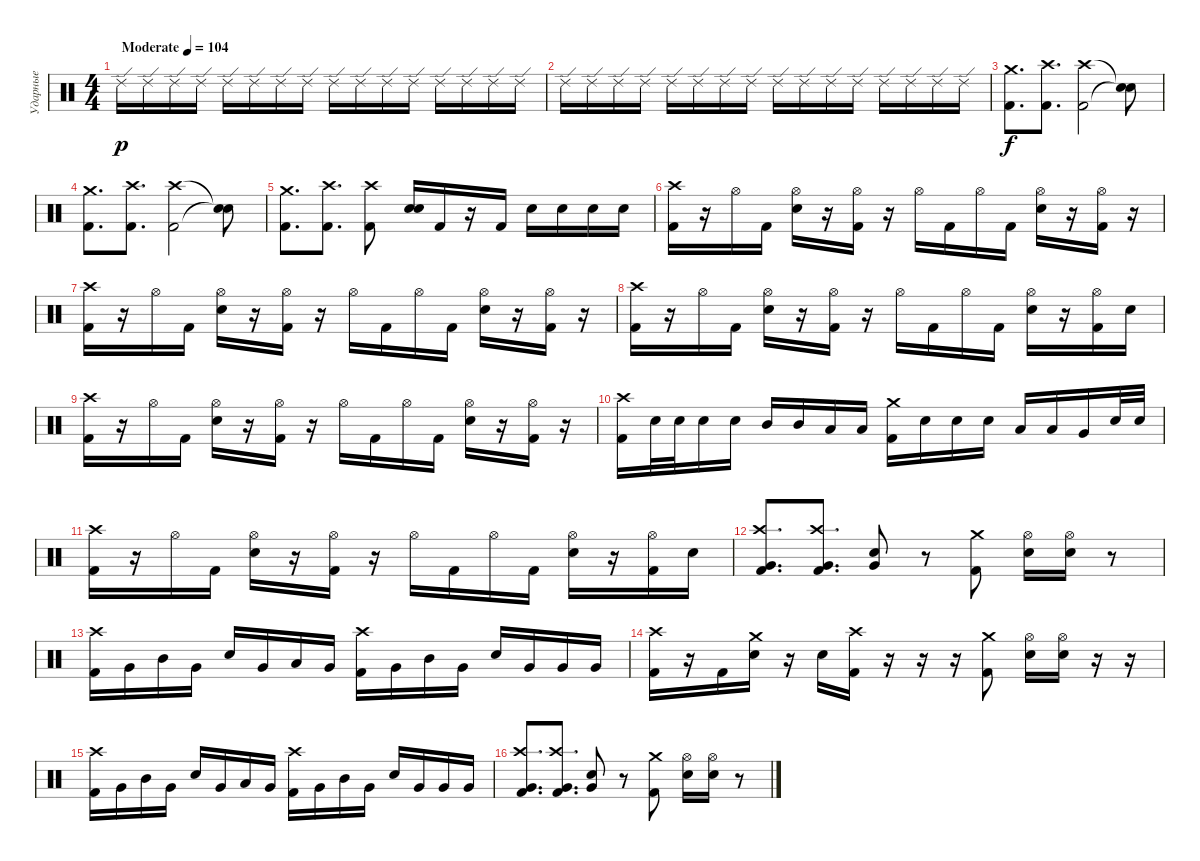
\track ("Ударные" "Ударные") {instrument percussion}
\staff {score}
\articulation defaults
\ts (4 4)
\tempo (104 "Moderate")
\clef neutral
\ks c "Ride (edge) 2".16{dy p} "Ride (edge) 2".16 "Ride (edge) 2".16 "Ride (edge) 2".16 "Ride (edge) 2".16 "Ride (edge) 2".16 "Ride (edge) 2".16 "Ride (edge) 2".16 "Ride (edge) 2".16 "Ride (edge) 2".16 "Ride (edge) 2".16 "Ride (edge) 2".16 "Ride (edge) 2".16 "Ride (edge) 2".16 "Ride (edge) 2".16 "Ride (edge) 2".16
|
"Ride (edge) 2".16 "Ride (edge) 2".16 "Ride (edge) 2".16 "Ride (edge) 2".16 "Ride (edge) 2".16 "Ride (edge) 2".16 "Ride (edge) 2".16 "Ride (edge) 2".16 "Ride (edge) 2".16 "Ride (edge) 2".16 "Ride (edge) 2".16 "Ride (edge) 2".16 "Ride (edge) 2".16 "Ride (edge) 2".16 "Ride (edge) 2".16 "Ride (edge) 2".16 |
("Crash medium (hit)" "Kick (hit) 2").8{d dy f} ("Crash high (hit)" "Kick (hit) 2").8{d} ("Crash high (hit)" "Kick (hit) 2").2 ("Snare (hit)"{t} "Snare (hit)"{t}).8 |
("Crash medium (hit)" "Kick (hit) 2").8{d} ("Crash high (hit)" "Kick (hit) 2").8{d} ("Crash high (hit)" "Kick (hit) 2").2 ("Snare (hit)"{t} "Snare (hit)"{t}).8 |
("Crash medium (hit)" "Kick (hit) 2").8{d} ("Crash high (hit)" "Kick (hit) 2").8{d} ("Crash high (hit)" "Kick (hit) 2").8 ("Snare (hit) 2" "Snare (hit) 2").16 "Kick (hit) 2".16 r.16 "Kick (hit) 2".16 "Snare (hit) 2".16 "Snare (hit) 2".16 "Snare (hit) 2".16 "Snare (hit) 2".16 |
("Crash high (hit)" "Kick (hit) 2").16 r.16 "Hi-Hat (open)".16 "Kick (hit) 2".16 ("Hi-Hat (open)" "Snare (hit) 2").16 r.16 ("Hi-Hat (open)" "Kick (hit) 2").16 r.16 "Hi-Hat (open)".16 "Kick (hit) 2".16 "Hi-Hat (open)".16 "Kick (hit) 2".16 ("Hi-Hat (open)" "Snare (hit) 2").16 r.16 ("Hi-Hat (open)" "Kick (hit) 2").16 r.16 |
("Crash high (hit)" "Kick (hit) 2").16 r.16 "Hi-Hat (open)".16 "Kick (hit) 2".16 ("Hi-Hat (open)" "Snare (hit) 2").16 r.16 ("Hi-Hat (open)" "Kick (hit) 2").16 r.16 "Hi-Hat (open)".16 "Kick (hit) 2".16 "Hi-Hat (open)".16 "Kick (hit) 2".16 ("Hi-Hat (open)" "Snare (hit) 2").16 r.16 ("Hi-Hat (open)" "Kick (hit) 2").16 r.16 |
("Crash high (hit)" "Kick (hit) 2").16 r.16 "Hi-Hat (open)".16 "Kick (hit) 2".16 ("Hi-Hat (open)" "Snare (hit) 2").16 r.16 ("Hi-Hat (open)" "Kick (hit) 2").16 r.16 "Hi-Hat (open)".16 "Kick (hit) 2".16 "Hi-Hat (open)".16 "Kick (hit) 2".16 ("Hi-Hat (open)" "Snare (hit) 2").16 r.16 ("Hi-Hat (open)" "Kick (hit) 2").16 "Snare (hit) 2".16 |
("Crash high (hit)" "Kick (hit) 2").16 r.16 "Hi-Hat (open)".16 "Kick (hit) 2".16 ("Hi-Hat (open)" "Snare (hit) 2").16 r.16 ("Hi-Hat (open)" "Kick (hit) 2").16 r.16 "Hi-Hat (open)".16 "Kick (hit) 2".16 "Hi-Hat (open)".16 "Kick (hit) 2".16 ("Hi-Hat (open)" "Snare (hit) 2").16 r.16 ("Hi-Hat (open)" "Kick (hit) 2").16 r.16 |
("Crash high (hit)" "Kick (hit) 2").16 "Snare (hit) 2".32 "Snare (hit) 2".32 "Snare (hit) 2".16 "Snare (hit) 2".16 "Mid Tom (hit)".16 "Mid Tom (hit)".16 "Low Tom (hit)".16 "Low Tom (hit)".16 ("Crash medium (hit)" "Kick (hit) 2").16 "Snare (hit) 2".16 "Snare (hit) 2".16 "Snare (hit) 2".16 "Low Tom (hit)".16 "Low Tom (hit)".16 "Very Low Tom (hit)".16 "Snare (hit) 2".32 "Snare (hit) 2".32 |
("Crash high (hit)" "Kick (hit) 2").16 r.16 "Hi-Hat (open)".16 "Kick (hit) 2".16 ("Hi-Hat (open)" "Snare (hit) 2").16 r.16 ("Hi-Hat (open)" "Kick (hit) 2").16 r.16 "Hi-Hat (open)".16 "Kick (hit) 2".16 "Hi-Hat (open)".16 "Kick (hit) 2".16 ("Hi-Hat (open)" "Snare (hit) 2").16 r.16 ("Hi-Hat (open)" "Kick (hit) 2").16 "Snare (hit) 2".16 |
("Crash high (hit)" "Very Low Tom (hit)" "Kick (hit) 2").8{d} ("Crash high (hit)" "Very Low Tom (hit)" "Kick (hit) 2").8{d} ("Snare (hit) 2" "Very Low Tom (hit)").8 r.8 ("Crash medium (hit)" "Kick (hit) 2").8 ("Hi-Hat (open)" "Snare (hit) 2").16 ("Hi-Hat (open)" "Snare (hit) 2").16 r.8 |
("Crash high (hit)" "Kick (hit) 2").16 "Very Low Tom (hit)".16 "Mid Tom (hit)".16 "Very Low Tom (hit)".16 "Snare (hit) 2".16 "Very Low Tom (hit)".16 "Low Tom (hit)".16 "Very Low Tom (hit)".16 ("Crash high (hit)" "Kick (hit) 2").16 "Very Low Tom (hit)".16 "Mid Tom (hit)".16 "Very Low Tom (hit)".16 "Snare (hit) 2".16 "Very Low Tom (hit)".16 "Very Low Tom (hit)".16 "Very Low Tom (hit)".16 |
("Crash high (hit)" "Kick (hit) 2").16 r.16 "Kick (hit) 2".16 ("Crash medium (hit)" "Snare (hit) 2").16 r.16 "Snare (hit) 2".16 ("Crash high (hit)" "Kick (hit) 2").16 r.16 r.16 r.16 ("Crash medium (hit)" "Kick (hit) 2").8 ("Hi-Hat (open)" "Snare (hit) 2").16 ("Hi-Hat (open)" "Snare (hit) 2").16 r.16 r.16 |
("Crash high (hit)" "Kick (hit) 2").16 "Very Low Tom (hit)".16 "Mid Tom (hit)".16 "Very Low Tom (hit)".16 "Snare (hit) 2".16 "Very Low Tom (hit)".16 "Low Tom (hit)".16 "Very Low Tom (hit)".16 ("Crash high (hit)" "Kick (hit) 2").16 "Very Low Tom (hit)".16 "Mid Tom (hit)".16 "Very Low Tom (hit)".16 "Snare (hit) 2".16 "Very Low Tom (hit)".16 "Very Low Tom (hit)".16 "Very Low Tom (hit)".16 |
("Crash high (hit)" "Very Low Tom (hit)" "Kick (hit) 2").8{d} ("Crash high (hit)" "Very Low Tom (hit)" "Kick (hit) 2").8{d} ("Snare (hit) 2" "Very Low Tom (hit)").8 r.8 ("Crash medium (hit)" "Kick (hit) 2").8 ("Hi-Hat (open)" "Snare (hit) 2").16 ("Hi-Hat (open)" "Snare (hit) 2").16 r.8
